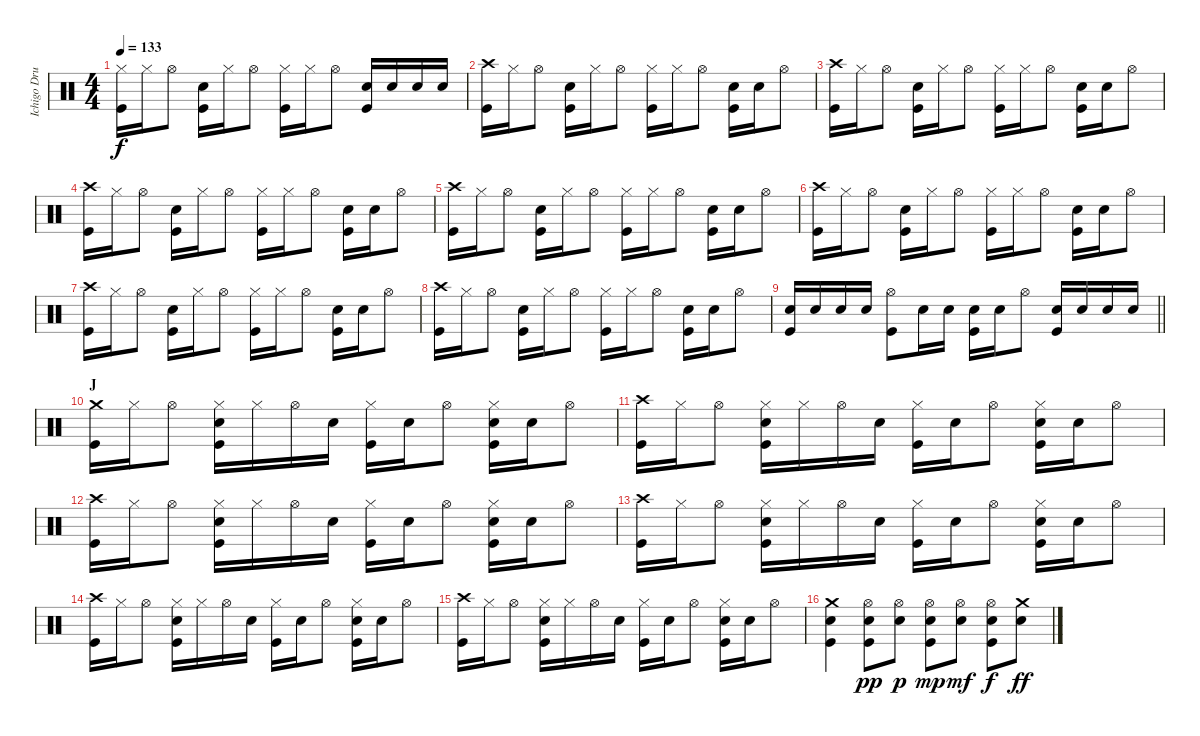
\track ("Ichigo Drums" "Ichigo Dru") {instrument percussion}
\staff {score}
\articulation defaults
\ts (4 4)
\tempo 133
\clef neutral
\ks c
("Hi-Hat (closed)" "Kick (hit)").16{dy f} "Hi-Hat (closed)".16 "Hi-Hat (open)".8 ("Snare (hit) 2" "Kick (hit)").16 "Hi-Hat (closed)".16 "Hi-Hat (open)".8 ("Hi-Hat (closed)" "Kick (hit)").16 "Hi-Hat (closed)".16 "Hi-Hat (open)".8 ("Snare (hit) 2" "Kick (hit)").16 "Snare (hit) 2".16 "Snare (hit) 2".16 "Snare (hit) 2".16 |
("Crash high (hit)" "Kick (hit)").16 "Hi-Hat (closed)".16 "Hi-Hat (open)".8 ("Snare (hit) 2" "Kick (hit)").16 "Hi-Hat (closed)".16 "Hi-Hat (open)".8 ("Hi-Hat (closed)" "Kick (hit)").16 "Hi-Hat (closed)".16 "Hi-Hat (open)".8 ("Snare (hit) 2" "Kick (hit)").16 "Snare (hit) 2".16 "Hi-Hat (open)".8 |
("Crash high (hit)" "Kick (hit)").16 "Hi-Hat (closed)".16 "Hi-Hat (open)".8 ("Snare (hit) 2" "Kick (hit)").16 "Hi-Hat (closed)".16 "Hi-Hat (open)".8 ("Hi-Hat (closed)" "Kick (hit)").16 "Hi-Hat (closed)".16 "Hi-Hat (open)".8 ("Snare (hit) 2" "Kick (hit)").16 "Snare (hit) 2".16 "Hi-Hat (open)".8 |
("Crash high (hit)" "Kick (hit)").16 "Hi-Hat (closed)".16 "Hi-Hat (open)".8 ("Snare (hit) 2" "Kick (hit)").16 "Hi-Hat (closed)".16 "Hi-Hat (open)".8 ("Hi-Hat (closed)" "Kick (hit)").16 "Hi-Hat (closed)".16 "Hi-Hat (open)".8 ("Snare (hit) 2" "Kick (hit)").16 "Snare (hit) 2".16 "Hi-Hat (open)".8 |
("Crash high (hit)" "Kick (hit)").16 "Hi-Hat (closed)".16 "Hi-Hat (open)".8 ("Snare (hit) 2" "Kick (hit)").16 "Hi-Hat (closed)".16 "Hi-Hat (open)".8 ("Hi-Hat (closed)" "Kick (hit)").16 "Hi-Hat (closed)".16 "Hi-Hat (open)".8 ("Snare (hit) 2" "Kick (hit)").16 "Snare (hit) 2".16 "Hi-Hat (open)".8 |
("Crash high (hit)" "Kick (hit)").16 "Hi-Hat (closed)".16 "Hi-Hat (open)".8 ("Snare (hit) 2" "Kick (hit)").16 "Hi-Hat (closed)".16 "Hi-Hat (open)".8 ("Hi-Hat (closed)" "Kick (hit)").16 "Hi-Hat (closed)".16 "Hi-Hat (open)".8 ("Snare (hit) 2" "Kick (hit)").16 "Snare (hit) 2".16 "Hi-Hat (open)".8 |
("Crash high (hit)" "Kick (hit)").16 "Hi-Hat (closed)".16 "Hi-Hat (open)".8 ("Snare (hit) 2" "Kick (hit)").16 "Hi-Hat (closed)".16 "Hi-Hat (open)".8 ("Hi-Hat (closed)" "Kick (hit)").16 "Hi-Hat (closed)".16 "Hi-Hat (open)".8 ("Snare (hit) 2" "Kick (hit)").16 "Snare (hit) 2".16 "Hi-Hat (open)".8 |
("Crash high (hit)" "Kick (hit)").16 "Hi-Hat (closed)".16 "Hi-Hat (open)".8 ("Snare (hit) 2" "Kick (hit)").16 "Hi-Hat (closed)".16 "Hi-Hat (open)".8 ("Hi-Hat (closed)" "Kick (hit)").16 "Hi-Hat (closed)".16 "Hi-Hat (open)".8 ("Snare (hit) 2" "Kick (hit)").16 "Snare (hit) 2".16 "Hi-Hat (open)".8 |
\barLineRight lightlight
("Snare (hit) 2" "Kick (hit)").16 "Snare (hit) 2".16 "Snare (hit) 2".16 "Snare (hit) 2".16 ("Hi-Hat (open)" "Kick (hit)").8 "Snare (hit) 2".16 "Snare (hit) 2".16 ("Snare (hit) 2" "Kick (hit)").16 "Snare (hit) 2".16 "Hi-Hat (open)".8 ("Snare (hit) 2" "Kick (hit)").16 "Snare (hit) 2".16 "Snare (hit) 2".16 "Snare (hit) 2".16 |
\section ("" "J")
("Crash medium (hit)" "Kick (hit)").16 "Hi-Hat (closed)".16 "Hi-Hat (open)".8 ("Hi-Hat (closed)" "Snare (hit) 2" "Kick (hit)").16 "Hi-Hat (closed)".16 "Hi-Hat (open)".16 "Snare (hit) 2".16 ("Hi-Hat (closed)" "Kick (hit)").16 "Snare (hit) 2".16 "Hi-Hat (open)".8 ("Hi-Hat (closed)" "Snare (hit) 2" "Kick (hit)").16 "Snare (hit) 2".16 "Hi-Hat (open)".8 |
("Crash high (hit)" "Kick (hit)").16 "Hi-Hat (closed)".16 "Hi-Hat (open)".8 ("Hi-Hat (closed)" "Snare (hit) 2" "Kick (hit)").16 "Hi-Hat (closed)".16 "Hi-Hat (open)".16 "Snare (hit) 2".16 ("Hi-Hat (closed)" "Kick (hit)").16 "Snare (hit) 2".16 "Hi-Hat (open)".8 ("Hi-Hat (closed)" "Snare (hit) 2" "Kick (hit)").16 "Snare (hit) 2".16 "Hi-Hat (open)".8 |
("Crash high (hit)" "Kick (hit)").16 "Hi-Hat (closed)".16 "Hi-Hat (open)".8 ("Hi-Hat (closed)" "Snare (hit) 2" "Kick (hit)").16 "Hi-Hat (closed)".16 "Hi-Hat (open)".16 "Snare (hit) 2".16 ("Hi-Hat (closed)" "Kick (hit)").16 "Snare (hit) 2".16 "Hi-Hat (open)".8 ("Hi-Hat (closed)" "Snare (hit) 2" "Kick (hit)").16 "Snare (hit) 2".16 "Hi-Hat (open)".8 |
("Crash high (hit)" "Kick (hit)").16 "Hi-Hat (closed)".16 "Hi-Hat (open)".8 ("Hi-Hat (closed)" "Snare (hit) 2" "Kick (hit)").16 "Hi-Hat (closed)".16 "Hi-Hat (open)".16 "Snare (hit) 2".16 ("Hi-Hat (closed)" "Kick (hit)").16 "Snare (hit) 2".16 "Hi-Hat (open)".8 ("Hi-Hat (closed)" "Snare (hit) 2" "Kick (hit)").16 "Snare (hit) 2".16 "Hi-Hat (open)".8 |
("Crash high (hit)" "Kick (hit)").16 "Hi-Hat (closed)".16 "Hi-Hat (open)".8 ("Hi-Hat (closed)" "Snare (hit) 2" "Kick (hit)").16 "Hi-Hat (closed)".16 "Hi-Hat (open)".16 "Snare (hit) 2".16 ("Hi-Hat (closed)" "Kick (hit)").16 "Snare (hit) 2".16 "Hi-Hat (open)".8 ("Hi-Hat (closed)" "Snare (hit) 2" "Kick (hit)").16 "Snare (hit) 2".16 "Hi-Hat (open)".8 |
("Crash high (hit)" "Kick (hit)").16 "Hi-Hat (closed)".16 "Hi-Hat (open)".8 ("Hi-Hat (closed)" "Snare (hit) 2" "Kick (hit)").16 "Hi-Hat (closed)".16 "Hi-Hat (open)".16 "Snare (hit) 2".16 ("Hi-Hat (closed)" "Kick (hit)").16 "Snare (hit) 2".16 "Hi-Hat (open)".8 ("Hi-Hat (closed)" "Snare (hit) 2" "Kick (hit)").16 "Snare (hit) 2".16 "Hi-Hat (open)".8 |
("Crash medium (hit)" "Snare (hit) 2" "Kick (hit)").4 ("Hi-Hat (open)" "Snare (hit) 2" "Kick (hit)").8{dy pp} ("Hi-Hat (open)" "Snare (hit) 2").8{dy p} ("Hi-Hat (open)" "Snare (hit) 2" "Kick (hit)").8{dy mp} ("Hi-Hat (open)" "Snare (hit) 2").8{dy mf} ("Hi-Hat (open)" "Snare (hit) 2" "Kick (hit)").8{dy f} ("Crash medium (hit)" "Snare (hit) 2").8{dy ff}
